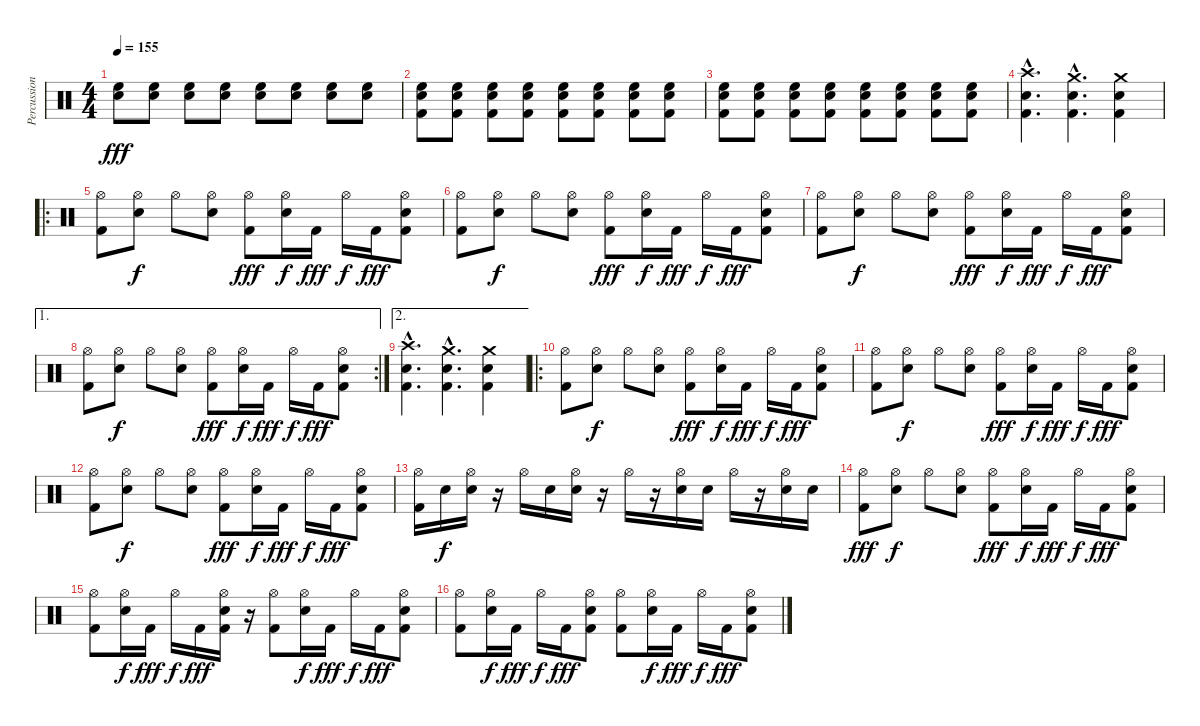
\track ("Percussion" "Percussion") {instrument percussion}
\staff {score}
\articulation defaults
\ts (4 4)
\tempo 155
\clef neutral
\ks c
("High Floor Tom (hit)" "Snare (hit) 2").8{dy fff} ("High Floor Tom (hit)" "Snare (hit) 2").8 ("High Floor Tom (hit)" "Snare (hit) 2").8 ("High Floor Tom (hit)" "Snare (hit) 2").8 ("High Floor Tom (hit)" "Snare (hit) 2").8 ("High Floor Tom (hit)" "Snare (hit) 2").8 ("High Floor Tom (hit)" "Snare (hit) 2").8 ("High Floor Tom (hit)" "Snare (hit) 2").8 |
("High Floor Tom (hit)" "Snare (hit) 2" "Kick (hit) 2").8 ("High Floor Tom (hit)" "Snare (hit) 2" "Kick (hit) 2").8 ("High Floor Tom (hit)" "Snare (hit) 2" "Kick (hit) 2").8 ("High Floor Tom (hit)" "Snare (hit) 2" "Kick (hit) 2").8 ("High Floor Tom (hit)" "Snare (hit) 2" "Kick (hit) 2").8 ("High Floor Tom (hit)" "Snare (hit) 2" "Kick (hit) 2").8 ("High Floor Tom (hit)" "Snare (hit) 2" "Kick (hit) 2").8 ("High Floor Tom (hit)" "Snare (hit) 2" "Kick (hit) 2").8 |
("High Floor Tom (hit)" "Snare (hit) 2" "Kick (hit) 2").8 ("High Floor Tom (hit)" "Snare (hit) 2" "Kick (hit) 2").8 ("High Floor Tom (hit)" "Snare (hit) 2" "Kick (hit) 2").8 ("High Floor Tom (hit)" "Snare (hit) 2" "Kick (hit) 2").8 ("High Floor Tom (hit)" "Snare (hit) 2" "Kick (hit) 2").8 ("High Floor Tom (hit)" "Snare (hit) 2" "Kick (hit) 2").8 ("High Floor Tom (hit)" "Snare (hit) 2" "Kick (hit) 2").8 ("High Floor Tom (hit)" "Snare (hit) 2" "Kick (hit) 2").8 |
("Crash high (hit)"{hac} "Snare (hit) 2"{hac} "Kick (hit) 2"{hac}).4{d} ("Crash medium (hit)"{hac} "Snare (hit) 2"{hac} "Kick (hit) 2"{hac}).4{d} ("Crash medium (hit)" "Snare (hit) 2" "Kick (hit) 2").4 |
\ro
("Hi-Hat (open)" "Kick (hit) 2").8 ("Hi-Hat (open)" "Snare (hit) 2").8{dy f} "Hi-Hat (open)".8 ("Hi-Hat (open)" "Snare (hit) 2").8 ("Hi-Hat (open)" "Kick (hit) 2").8{dy fff} ("Hi-Hat (open)" "Snare (hit) 2").16{dy f} "Kick (hit) 2".16{dy fff} "Hi-Hat (open)".16{dy f} "Kick (hit) 2".16{dy fff} ("Hi-Hat (open)" "Snare (hit) 2" "Kick (hit) 2").8 |
("Hi-Hat (open)" "Kick (hit) 2").8 ("Hi-Hat (open)" "Snare (hit) 2").8{dy f} "Hi-Hat (open)".8 ("Hi-Hat (open)" "Snare (hit) 2").8 ("Hi-Hat (open)" "Kick (hit) 2").8{dy fff} ("Hi-Hat (open)" "Snare (hit) 2").16{dy f} "Kick (hit) 2".16{dy fff} "Hi-Hat (open)".16{dy f} "Kick (hit) 2".16{dy fff} ("Hi-Hat (open)" "Snare (hit) 2" "Kick (hit) 2").8 |
("Hi-Hat (open)" "Kick (hit) 2").8 ("Hi-Hat (open)" "Snare (hit) 2").8{dy f} "Hi-Hat (open)".8 ("Hi-Hat (open)" "Snare (hit) 2").8 ("Hi-Hat (open)" "Kick (hit) 2").8{dy fff} ("Hi-Hat (open)" "Snare (hit) 2").16{dy f} "Kick (hit) 2".16{dy fff} "Hi-Hat (open)".16{dy f} "Kick (hit) 2".16{dy fff} ("Hi-Hat (open)" "Snare (hit) 2" "Kick (hit) 2").8 |
\ae 1
\rc 2
("Hi-Hat (open)" "Kick (hit) 2").8 ("Hi-Hat (open)" "Snare (hit) 2").8{dy f} "Hi-Hat (open)".8 ("Hi-Hat (open)" "Snare (hit) 2").8 ("Hi-Hat (open)" "Kick (hit) 2").8{dy fff} ("Hi-Hat (open)" "Snare (hit) 2").16{dy f} "Kick (hit) 2".16{dy fff} "Hi-Hat (open)".16{dy f} "Kick (hit) 2".16{dy fff} ("Hi-Hat (open)" "Snare (hit) 2" "Kick (hit) 2").8 |
\ae 2
("Crash high (hit)"{hac} "Snare (hit) 2"{hac} "Kick (hit) 2"{hac}).4{d} ("Crash medium (hit)"{hac} "Snare (hit) 2"{hac} "Kick (hit) 2"{hac}).4{d} ("Crash medium (hit)" "Snare (hit) 2" "Kick (hit) 2").4 |
\ro
("Hi-Hat (open)" "Kick (hit) 2").8 ("Hi-Hat (open)" "Snare (hit) 2").8{dy f} "Hi-Hat (open)".8 ("Hi-Hat (open)" "Snare (hit) 2").8 ("Hi-Hat (open)" "Kick (hit) 2").8{dy fff} ("Hi-Hat (open)" "Snare (hit) 2").16{dy f} "Kick (hit) 2".16{dy fff} "Hi-Hat (open)".16{dy f} "Kick (hit) 2".16{dy fff} ("Hi-Hat (open)" "Snare (hit) 2" "Kick (hit) 2").8 |
("Hi-Hat (open)" "Kick (hit) 2").8 ("Hi-Hat (open)" "Snare (hit) 2").8{dy f} "Hi-Hat (open)".8 ("Hi-Hat (open)" "Snare (hit) 2").8 ("Hi-Hat (open)" "Kick (hit) 2").8{dy fff} ("Hi-Hat (open)" "Snare (hit) 2").16{dy f} "Kick (hit) 2".16{dy fff} "Hi-Hat (open)".16{dy f} "Kick (hit) 2".16{dy fff} ("Hi-Hat (open)" "Snare (hit) 2" "Kick (hit) 2").8 |
("Hi-Hat (open)" "Kick (hit) 2").8 ("Hi-Hat (open)" "Snare (hit) 2").8{dy f} "Hi-Hat (open)".8 ("Hi-Hat (open)" "Snare (hit) 2").8 ("Hi-Hat (open)" "Kick (hit) 2").8{dy fff} ("Hi-Hat (open)" "Snare (hit) 2").16{dy f} "Kick (hit) 2".16{dy fff} "Hi-Hat (open)".16{dy f} "Kick (hit) 2".16{dy fff} ("Hi-Hat (open)" "Snare (hit) 2" "Kick (hit) 2").8 |
("Hi-Hat (open)" "Kick (hit) 2").16 "Snare (hit) 2".16{dy f} ("Hi-Hat (open)" "Snare (hit) 2").16 r.16 "Hi-Hat (open)".16 "Snare (hit) 2".16 ("Hi-Hat (open)" "Snare (hit) 2").16 r.16 "Hi-Hat (open)".16 r.16 ("Hi-Hat (open)" "Snare (hit) 2").16 "Snare (hit) 2".16 "Hi-Hat (open)".16 r.16 ("Hi-Hat (open)" "Snare (hit) 2").16 "Snare (hit) 2".16 |
("Hi-Hat (open)" "Kick (hit) 2").8{dy fff} ("Hi-Hat (open)" "Snare (hit) 2").8{dy f} "Hi-Hat (open)".8 ("Hi-Hat (open)" "Snare (hit) 2").8 ("Hi-Hat (open)" "Kick (hit) 2").8{dy fff} ("Hi-Hat (open)" "Snare (hit) 2").16{dy f} "Kick (hit) 2".16{dy fff} "Hi-Hat (open)".16{dy f} "Kick (hit) 2".16{dy fff} ("Hi-Hat (open)" "Snare (hit) 2" "Kick (hit) 2").8 |
("Hi-Hat (open)" "Kick (hit) 2").8 ("Hi-Hat (open)" "Snare (hit) 2").16{dy f} "Kick (hit) 2".16{dy fff} "Hi-Hat (open)".16{dy f} "Kick (hit) 2".16{dy fff} ("Hi-Hat (open)" "Snare (hit) 2" "Kick (hit) 2").16 r.16 ("Hi-Hat (open)" "Kick (hit) 2").8 ("Hi-Hat (open)" "Snare (hit) 2").16{dy f} "Kick (hit) 2".16{dy fff} "Hi-Hat (open)".16{dy f} "Kick (hit) 2".16{dy fff} ("Hi-Hat (open)" "Snare (hit) 2" "Kick (hit) 2").8 |
("Hi-Hat (open)" "Kick (hit) 2").8 ("Hi-Hat (open)" "Snare (hit) 2").16{dy f} "Kick (hit) 2".16{dy fff} "Hi-Hat (open)".16{dy f} "Kick (hit) 2".16{dy fff} ("Hi-Hat (open)" "Snare (hit) 2" "Kick (hit) 2").8 ("Hi-Hat (open)" "Kick (hit) 2").8 ("Hi-Hat (open)" "Snare (hit) 2").16{dy f} "Kick (hit) 2".16{dy fff} "Hi-Hat (open)".16{dy f} "Kick (hit) 2".16{dy fff} ("Hi-Hat (open)" "Snare (hit) 2" "Kick (hit) 2").8
